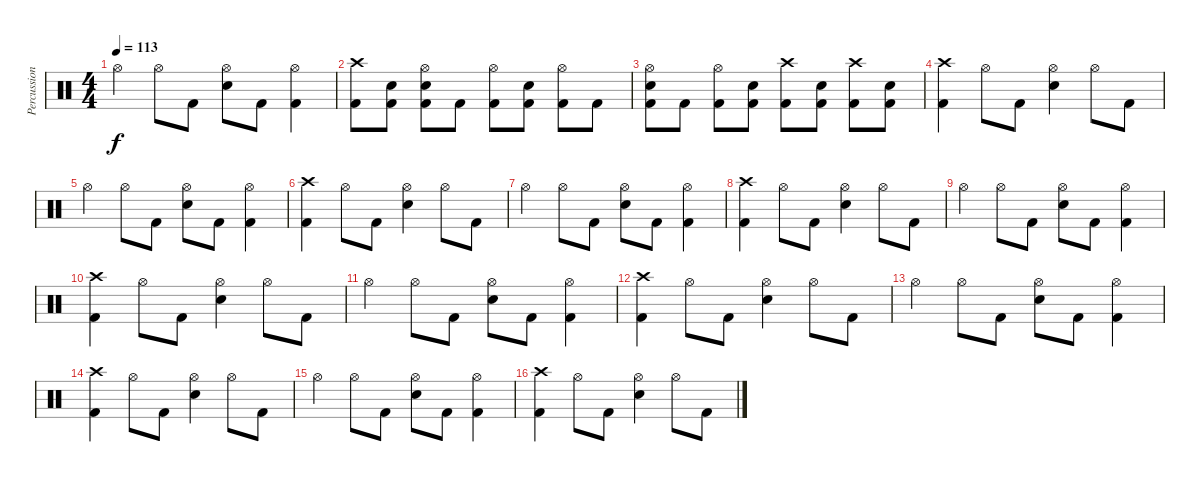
\track ("Percussion" "Percussion") {instrument percussion}
\staff {score}
\articulation defaults
\ts (4 4)
\tempo 113
\clef neutral
\ks c "Hi-Hat (open)".4{dy f} "Hi-Hat (open)".8 "Kick (hit) 2".8
("Hi-Hat (open)" "Electric Snare (hit)").8 "Kick (hit) 2".8 ("Hi-Hat (open)" "Kick (hit) 2").4 |
("Crash high (hit)" "Kick (hit) 2").8 ("Electric Snare (hit)" "Kick (hit) 2").8 ("Hi-Hat (open)" "Electric Snare (hit)" "Kick (hit) 2").8 "Kick (hit) 2".8 ("Hi-Hat (open)" "Kick (hit) 2").8 ("Electric Snare (hit)" "Kick (hit) 2").8 ("Hi-Hat (open)" "Kick (hit) 2").8 "Kick (hit) 2".8 |
("Hi-Hat (open)" "Electric Snare (hit)" "Kick (hit) 2").8 "Kick (hit) 2".8 ("Hi-Hat (open)" "Kick (hit) 2").8 ("Electric Snare (hit)" "Kick (hit) 2").8 ("Crash high (hit)" "Kick (hit) 2").8 ("Electric Snare (hit)" "Kick (hit) 2").8 ("Crash high (hit)" "Kick (hit) 2").8 ("Electric Snare (hit)" "Kick (hit) 2").8 |
("Crash high (hit)" "Kick (hit) 2").4 "Hi-Hat (open)".8 "Kick (hit) 2".8 ("Hi-Hat (open)" "Electric Snare (hit)").4 "Hi-Hat (open)".8 "Kick (hit) 2".8 |
"Hi-Hat (open)".4 "Hi-Hat (open)".8 "Kick (hit) 2".8 ("Hi-Hat (open)" "Electric Snare (hit)").8 "Kick (hit) 2".8 ("Hi-Hat (open)" "Kick (hit) 2").4 |
("Crash high (hit)" "Kick (hit) 2").4 "Hi-Hat (open)".8 "Kick (hit) 2".8 ("Hi-Hat (open)" "Electric Snare (hit)").4 "Hi-Hat (open)".8 "Kick (hit) 2".8 |
"Hi-Hat (open)".4 "Hi-Hat (open)".8 "Kick (hit) 2".8 ("Hi-Hat (open)" "Electric Snare (hit)").8 "Kick (hit) 2".8 ("Hi-Hat (open)" "Kick (hit) 2").4 |
("Crash high (hit)" "Kick (hit) 2").4 "Hi-Hat (open)".8 "Kick (hit) 2".8 ("Hi-Hat (open)" "Electric Snare (hit)").4 "Hi-Hat (open)".8 "Kick (hit) 2".8 |
"Hi-Hat (open)".4 "Hi-Hat (open)".8 "Kick (hit) 2".8 ("Hi-Hat (open)" "Electric Snare (hit)").8 "Kick (hit) 2".8 ("Hi-Hat (open)" "Kick (hit) 2").4 |
("Crash high (hit)" "Kick (hit) 2").4 "Hi-Hat (open)".8 "Kick (hit) 2".8 ("Hi-Hat (open)" "Electric Snare (hit)").4 "Hi-Hat (open)".8 "Kick (hit) 2".8 |
"Hi-Hat (open)".4 "Hi-Hat (open)".8 "Kick (hit) 2".8 ("Hi-Hat (open)" "Electric Snare (hit)").8 "Kick (hit) 2".8 ("Hi-Hat (open)" "Kick (hit) 2").4 |
("Crash high (hit)" "Kick (hit) 2").4 "Hi-Hat (open)".8 "Kick (hit) 2".8 ("Hi-Hat (open)" "Electric Snare (hit)").4 "Hi-Hat (open)".8 "Kick (hit) 2".8 |
"Hi-Hat (open)".4 "Hi-Hat (open)".8 "Kick (hit) 2".8 ("Hi-Hat (open)" "Electric Snare (hit)").8 "Kick (hit) 2".8 ("Hi-Hat (open)" "Kick (hit) 2").4 |
("Crash high (hit)" "Kick (hit) 2").4 "Hi-Hat (open)".8 "Kick (hit) 2".8 ("Hi-Hat (open)" "Electric Snare (hit)").4 "Hi-Hat (open)".8 "Kick (hit) 2".8 |
"Hi-Hat (open)".4 "Hi-Hat (open)".8 "Kick (hit) 2".8 ("Hi-Hat (open)" "Electric Snare (hit)").8 "Kick (hit) 2".8 ("Hi-Hat (open)" "Kick (hit) 2").4 |
("Crash high (hit)" "Kick (hit) 2").4 "Hi-Hat (open)".8 "Kick (hit) 2".8 ("Hi-Hat (open)" "Electric Snare (hit)").4 "Hi-Hat (open)".8 "Kick (hit) 2".8
